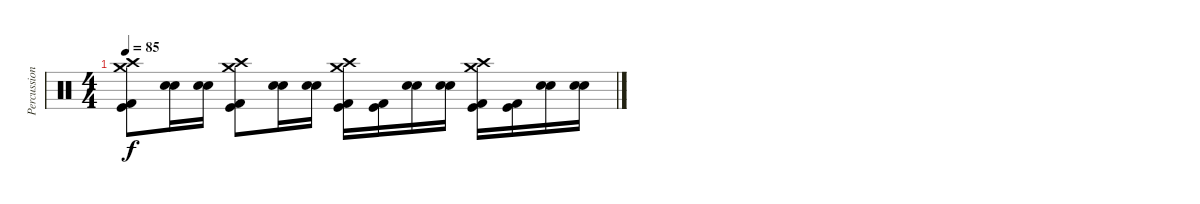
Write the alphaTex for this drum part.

\track ("Percussion" "Percussion") {instrument percussion}
\staff {score}
\articulation defaults
\ts (4 4)
\tempo 85
\clef neutral
\ks c
("Kick (hit) 2" "Kick (hit)" "Crash high (hit)" "Crash medium (hit)").8{dy f} ("Electric Snare (hit)" "Snare (hit) 2").16 ("Electric Snare (hit)" "Snare (hit) 2").16 ("Kick (hit) 2" "Kick (hit)" "Crash high (hit)" "Crash medium (hit)").8 ("Electric Snare (hit)" "Snare (hit) 2").16 ("Electric Snare (hit)" "Snare (hit) 2").16 ("Kick (hit) 2" "Kick (hit)" "Crash high (hit)" "Crash medium (hit)").16 ("Kick (hit) 2" "Kick (hit)").16 ("Electric Snare (hit)" "Snare (hit) 2").16 ("Electric Snare (hit)" "Snare (hit) 2").16 ("Kick (hit) 2" "Kick (hit)" "Crash high (hit)" "Crash medium (hit)").16 ("Kick (hit) 2" "Kick (hit)").16 ("Electric Snare (hit)" "Snare (hit) 2").16 ("Electric Snare (hit)" "Snare (hit) 2").16
